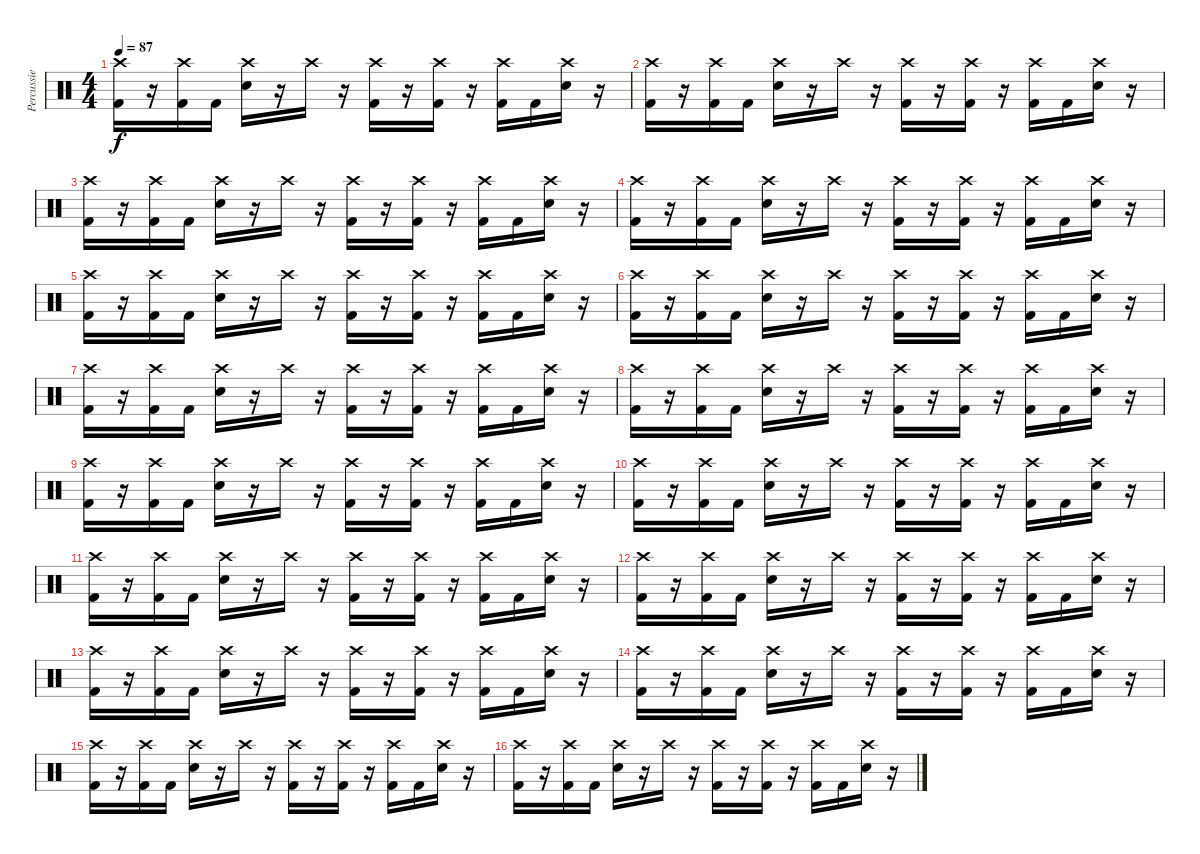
\track ("Percussie" "Percussie") {instrument percussion}
\staff {score}
\articulation defaults
\ts (4 4)
\tempo 87
\clef neutral
\ks c
("Kick (hit) 2" "Crash high (hit)").16{dy f} r.16 ("Kick (hit) 2" "Crash high (hit)").16 "Kick (hit) 2".16 ("Snare (hit) 2" "Crash high (hit)").16 r.16 "Crash high (hit)".16 r.16 ("Kick (hit) 2" "Crash high (hit)").16 r.16 ("Kick (hit) 2" "Crash high (hit)").16 r.16 ("Kick (hit) 2" "Crash high (hit)").16 "Kick (hit) 2".16 ("Snare (hit) 2" "Crash high (hit)").16 r.16 |
("Kick (hit) 2" "Crash high (hit)").16 r.16 ("Kick (hit) 2" "Crash high (hit)").16 "Kick (hit) 2".16 ("Snare (hit) 2" "Crash high (hit)").16 r.16 "Crash high (hit)".16 r.16 ("Kick (hit) 2" "Crash high (hit)").16 r.16 ("Kick (hit) 2" "Crash high (hit)").16 r.16 ("Kick (hit) 2" "Crash high (hit)").16 "Kick (hit) 2".16 ("Snare (hit) 2" "Crash high (hit)").16 r.16 |
("Kick (hit) 2" "Crash high (hit)").16 r.16 ("Kick (hit) 2" "Crash high (hit)").16 "Kick (hit) 2".16 ("Snare (hit) 2" "Crash high (hit)").16 r.16 "Crash high (hit)".16 r.16 ("Kick (hit) 2" "Crash high (hit)").16 r.16 ("Kick (hit) 2" "Crash high (hit)").16 r.16 ("Kick (hit) 2" "Crash high (hit)").16 "Kick (hit) 2".16 ("Snare (hit) 2" "Crash high (hit)").16 r.16 |
("Kick (hit) 2" "Crash high (hit)").16 r.16 ("Kick (hit) 2" "Crash high (hit)").16 "Kick (hit) 2".16 ("Snare (hit) 2" "Crash high (hit)").16 r.16 "Crash high (hit)".16 r.16 ("Kick (hit) 2" "Crash high (hit)").16 r.16 ("Kick (hit) 2" "Crash high (hit)").16 r.16 ("Kick (hit) 2" "Crash high (hit)").16 "Kick (hit) 2".16 ("Snare (hit) 2" "Crash high (hit)").16 r.16 |
("Kick (hit) 2" "Crash high (hit)").16 r.16 ("Kick (hit) 2" "Crash high (hit)").16 "Kick (hit) 2".16 ("Snare (hit) 2" "Crash high (hit)").16 r.16 "Crash high (hit)".16 r.16 ("Kick (hit) 2" "Crash high (hit)").16 r.16 ("Kick (hit) 2" "Crash high (hit)").16 r.16 ("Kick (hit) 2" "Crash high (hit)").16 "Kick (hit) 2".16 ("Snare (hit) 2" "Crash high (hit)").16 r.16 |
("Kick (hit) 2" "Crash high (hit)").16 r.16 ("Kick (hit) 2" "Crash high (hit)").16 "Kick (hit) 2".16 ("Snare (hit) 2" "Crash high (hit)").16 r.16 "Crash high (hit)".16 r.16 ("Kick (hit) 2" "Crash high (hit)").16 r.16 ("Kick (hit) 2" "Crash high (hit)").16 r.16 ("Kick (hit) 2" "Crash high (hit)").16 "Kick (hit) 2".16 ("Snare (hit) 2" "Crash high (hit)").16 r.16 |
("Kick (hit) 2" "Crash high (hit)").16 r.16 ("Kick (hit) 2" "Crash high (hit)").16 "Kick (hit) 2".16 ("Snare (hit) 2" "Crash high (hit)").16 r.16 "Crash high (hit)".16 r.16 ("Kick (hit) 2" "Crash high (hit)").16 r.16 ("Kick (hit) 2" "Crash high (hit)").16 r.16 ("Kick (hit) 2" "Crash high (hit)").16 "Kick (hit) 2".16 ("Snare (hit) 2" "Crash high (hit)").16 r.16 |
("Kick (hit) 2" "Crash high (hit)").16 r.16 ("Kick (hit) 2" "Crash high (hit)").16 "Kick (hit) 2".16 ("Snare (hit) 2" "Crash high (hit)").16 r.16 "Crash high (hit)".16 r.16 ("Kick (hit) 2" "Crash high (hit)").16 r.16 ("Kick (hit) 2" "Crash high (hit)").16 r.16 ("Kick (hit) 2" "Crash high (hit)").16 "Kick (hit) 2".16 ("Snare (hit) 2" "Crash high (hit)").16 r.16 |
("Kick (hit) 2" "Crash high (hit)").16 r.16 ("Kick (hit) 2" "Crash high (hit)").16 "Kick (hit) 2".16 ("Snare (hit) 2" "Crash high (hit)").16 r.16 "Crash high (hit)".16 r.16 ("Kick (hit) 2" "Crash high (hit)").16 r.16 ("Kick (hit) 2" "Crash high (hit)").16 r.16 ("Kick (hit) 2" "Crash high (hit)").16 "Kick (hit) 2".16 ("Snare (hit) 2" "Crash high (hit)").16 r.16 |
("Kick (hit) 2" "Crash high (hit)").16 r.16 ("Kick (hit) 2" "Crash high (hit)").16 "Kick (hit) 2".16 ("Snare (hit) 2" "Crash high (hit)").16 r.16 "Crash high (hit)".16 r.16 ("Kick (hit) 2" "Crash high (hit)").16 r.16 ("Kick (hit) 2" "Crash high (hit)").16 r.16 ("Kick (hit) 2" "Crash high (hit)").16 "Kick (hit) 2".16 ("Snare (hit) 2" "Crash high (hit)").16 r.16 |
("Kick (hit) 2" "Crash high (hit)").16 r.16 ("Kick (hit) 2" "Crash high (hit)").16 "Kick (hit) 2".16 ("Snare (hit) 2" "Crash high (hit)").16 r.16 "Crash high (hit)".16 r.16 ("Kick (hit) 2" "Crash high (hit)").16 r.16 ("Kick (hit) 2" "Crash high (hit)").16 r.16 ("Kick (hit) 2" "Crash high (hit)").16 "Kick (hit) 2".16 ("Snare (hit) 2" "Crash high (hit)").16 r.16 |
("Kick (hit) 2" "Crash high (hit)").16 r.16 ("Kick (hit) 2" "Crash high (hit)").16 "Kick (hit) 2".16 ("Snare (hit) 2" "Crash high (hit)").16 r.16 "Crash high (hit)".16 r.16 ("Kick (hit) 2" "Crash high (hit)").16 r.16 ("Kick (hit) 2" "Crash high (hit)").16 r.16 ("Kick (hit) 2" "Crash high (hit)").16 "Kick (hit) 2".16 ("Snare (hit) 2" "Crash high (hit)").16 r.16 |
("Kick (hit) 2" "Crash high (hit)").16 r.16 ("Kick (hit) 2" "Crash high (hit)").16 "Kick (hit) 2".16 ("Snare (hit) 2" "Crash high (hit)").16 r.16 "Crash high (hit)".16 r.16 ("Kick (hit) 2" "Crash high (hit)").16 r.16 ("Kick (hit) 2" "Crash high (hit)").16 r.16 ("Kick (hit) 2" "Crash high (hit)").16 "Kick (hit) 2".16 ("Snare (hit) 2" "Crash high (hit)").16 r.16 |
("Kick (hit) 2" "Crash high (hit)").16 r.16 ("Kick (hit) 2" "Crash high (hit)").16 "Kick (hit) 2".16 ("Snare (hit) 2" "Crash high (hit)").16 r.16 "Crash high (hit)".16 r.16 ("Kick (hit) 2" "Crash high (hit)").16 r.16 ("Kick (hit) 2" "Crash high (hit)").16 r.16 ("Kick (hit) 2" "Crash high (hit)").16 "Kick (hit) 2".16 ("Snare (hit) 2" "Crash high (hit)").16 r.16 |
("Kick (hit) 2" "Crash high (hit)").16 r.16 ("Kick (hit) 2" "Crash high (hit)").16 "Kick (hit) 2".16 ("Snare (hit) 2" "Crash high (hit)").16 r.16 "Crash high (hit)".16 r.16 ("Kick (hit) 2" "Crash high (hit)").16 r.16 ("Kick (hit) 2" "Crash high (hit)").16 r.16 ("Kick (hit) 2" "Crash high (hit)").16 "Kick (hit) 2".16 ("Snare (hit) 2" "Crash high (hit)").16 r.16 |
("Kick (hit) 2" "Crash high (hit)").16 r.16 ("Kick (hit) 2" "Crash high (hit)").16 "Kick (hit) 2".16 ("Snare (hit) 2" "Crash high (hit)").16 r.16 "Crash high (hit)".16 r.16 ("Kick (hit) 2" "Crash high (hit)").16 r.16 ("Kick (hit) 2" "Crash high (hit)").16 r.16 ("Kick (hit) 2" "Crash high (hit)").16 "Kick (hit) 2".16 ("Snare (hit) 2" "Crash high (hit)").16 r.16
